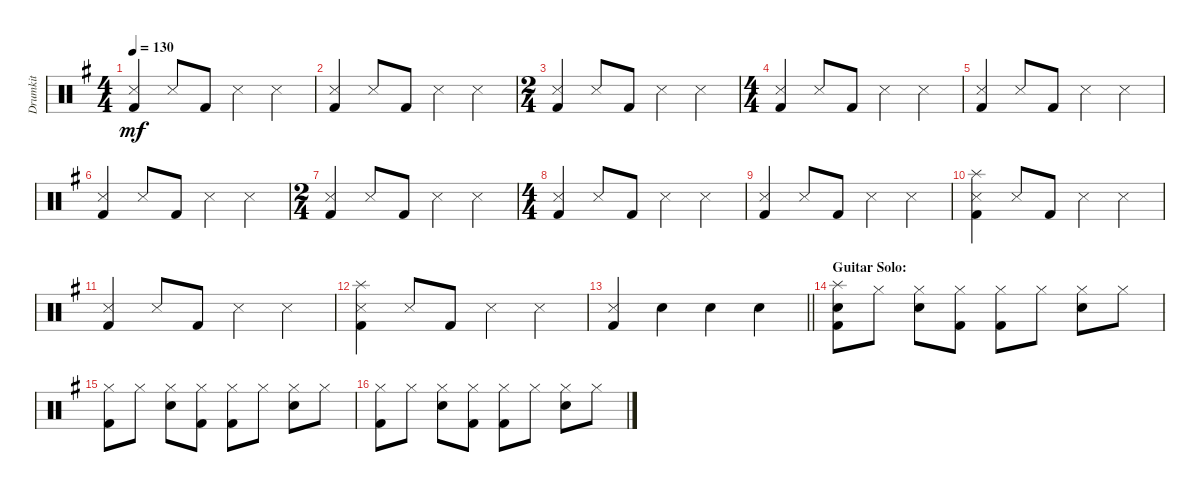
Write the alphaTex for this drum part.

\track ("Drumkit" "Drumkit") {instrument percussion}
\staff {score}
\articulation defaults
\ts (4 4)
\tempo 130
\clef neutral
\ks g
("Kick (hit) 2" "Snare (side stick) 3").4{dy mf} "Snare (side stick) 3".8 "Kick (hit) 2".8 "Snare (side stick) 3".4 "Snare (side stick) 3".4 |
("Kick (hit) 2" "Snare (side stick) 3").4 "Snare (side stick) 3".8 "Kick (hit) 2".8 "Snare (side stick) 3".4 "Snare (side stick) 3".4 |
\ts (2 4)
("Kick (hit) 2" "Snare (side stick) 3").4 "Snare (side stick) 3".8 "Kick (hit) 2".8 "Snare (side stick) 3".4 "Snare (side stick) 3".4 |
\ts (4 4)
("Kick (hit) 2" "Snare (side stick) 3").4 "Snare (side stick) 3".8 "Kick (hit) 2".8 "Snare (side stick) 3".4 "Snare (side stick) 3".4 |
("Kick (hit) 2" "Snare (side stick) 3").4 "Snare (side stick) 3".8 "Kick (hit) 2".8 "Snare (side stick) 3".4 "Snare (side stick) 3".4 |
("Kick (hit) 2" "Snare (side stick) 3").4 "Snare (side stick) 3".8 "Kick (hit) 2".8 "Snare (side stick) 3".4 "Snare (side stick) 3".4 |
\ts (2 4)
("Kick (hit) 2" "Snare (side stick) 3").4 "Snare (side stick) 3".8 "Kick (hit) 2".8 "Snare (side stick) 3".4 "Snare (side stick) 3".4 |
\ts (4 4)
("Kick (hit) 2" "Snare (side stick) 3").4 "Snare (side stick) 3".8 "Kick (hit) 2".8 "Snare (side stick) 3".4 "Snare (side stick) 3".4 |
("Kick (hit) 2" "Snare (side stick) 3").4 "Snare (side stick) 3".8 "Kick (hit) 2".8 "Snare (side stick) 3".4 "Snare (side stick) 3".4 |
("Kick (hit) 2" "Snare (side stick) 3" "Splash (hit)").4 "Snare (side stick) 3".8 "Kick (hit) 2".8 "Snare (side stick) 3".4 "Snare (side stick) 3".4 |
("Kick (hit) 2" "Snare (side stick) 3").4 "Snare (side stick) 3".8 "Kick (hit) 2".8 "Snare (side stick) 3".4 "Snare (side stick) 3".4 |
("Kick (hit) 2" "Snare (side stick) 3" "Splash (hit)").4 "Snare (side stick) 3".8 "Kick (hit) 2".8 "Snare (side stick) 3".4 "Snare (side stick) 3".4 |
\barLineRight lightlight
("Kick (hit) 2" "Snare (side stick) 3").4 "Snare (hit) 2".4 "Snare (hit) 2".4 "Snare (hit) 2".4 |
\section ("" "Guitar Solo:")
("Snare (hit) 2" "Splash (hit)" "Kick (hit) 2").8 "Hi-Hat (closed)".8 ("Hi-Hat (closed)" "Snare (hit) 2").8 ("Hi-Hat (closed)" "Kick (hit) 2").8 ("Hi-Hat (closed)" "Kick (hit) 2").8 "Hi-Hat (closed)".8 ("Hi-Hat (closed)" "Snare (hit) 2").8 "Hi-Hat (closed)".8 |
("Hi-Hat (closed)" "Kick (hit) 2").8 "Hi-Hat (closed)".8 ("Hi-Hat (closed)" "Snare (hit) 2").8 ("Hi-Hat (closed)" "Kick (hit) 2").8 ("Hi-Hat (closed)" "Kick (hit) 2").8 "Hi-Hat (closed)".8 ("Hi-Hat (closed)" "Snare (hit) 2").8 "Hi-Hat (closed)".8 |
("Hi-Hat (closed)" "Kick (hit) 2").8 "Hi-Hat (closed)".8 ("Hi-Hat (closed)" "Snare (hit) 2").8 ("Hi-Hat (closed)" "Kick (hit) 2").8 ("Hi-Hat (closed)" "Kick (hit) 2").8 "Hi-Hat (closed)".8 ("Hi-Hat (closed)" "Snare (hit) 2").8 "Hi-Hat (closed)".8
